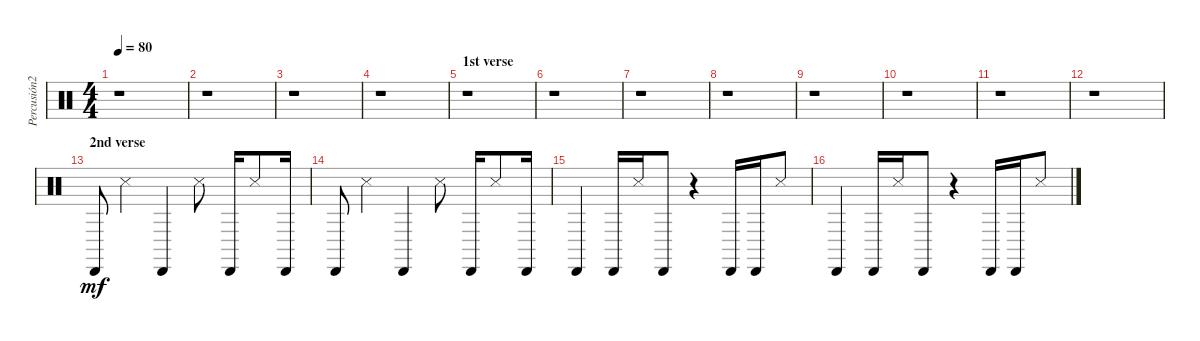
\track ("Percusión2" "Percusión2") {instrument percussion}
\staff {score}
\articulation defaults
\ts (4 4)
\tempo 80
\clef neutral
\ks c
r.1{dy mf} |
r.1 |
r.1 |
r.1 |
\section ("" "1st verse")
r.1 |
r.1 |
r.1 |
r.1 |
r.1 |
r.1 |
r.1 |
r.1 |
\section ("" "2nd verse")
"Cabasa (hit)".8 "Snare (side stick) 3".4 "Cabasa (hit)".4 "Snare (side stick) 3".8 "Cabasa (hit)".16 "Snare (side stick) 3".8 "Cabasa (hit)".16 |
"Cabasa (hit)".8 "Snare (side stick) 3".4 "Cabasa (hit)".4 "Snare (side stick) 3".8 "Cabasa (hit)".16 "Snare (side stick) 3".8 "Cabasa (hit)".16 |
"Cabasa (hit)".4 "Cabasa (hit)".16 "Snare (side stick) 3".16 "Cabasa (hit)".8 r.4 "Cabasa (hit)".16 "Cabasa (hit)".16 "Snare (side stick) 3".8 |
"Cabasa (hit)".4 "Cabasa (hit)".16 "Snare (side stick) 3".16 "Cabasa (hit)".8 r.4 "Cabasa (hit)".16 "Cabasa (hit)".16 "Snare (side stick) 3".8
